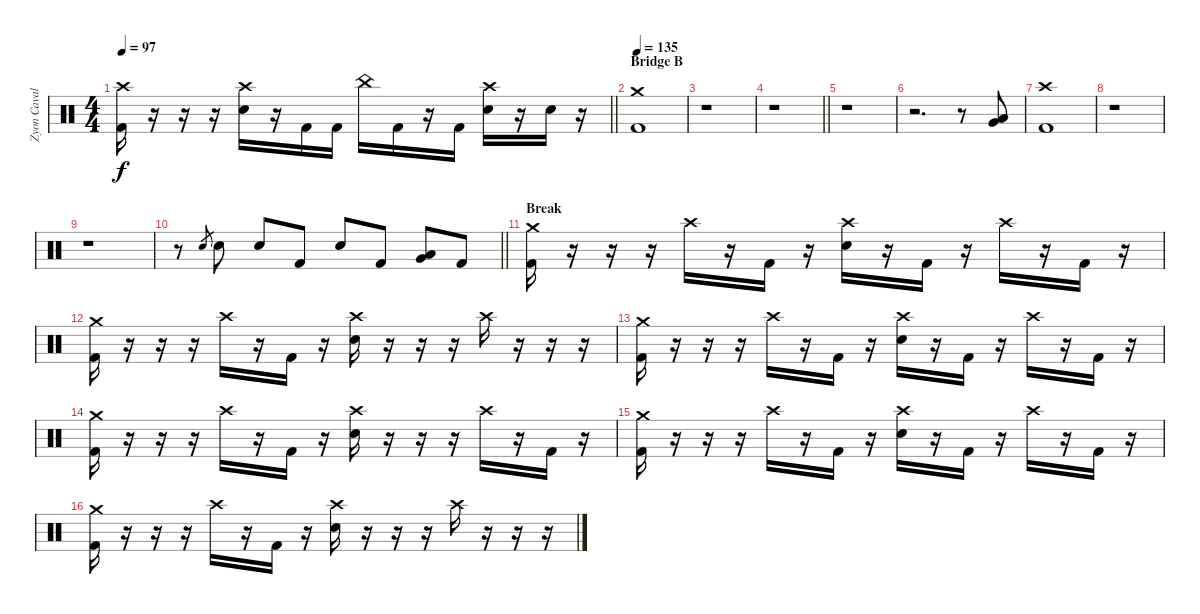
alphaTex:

\track ("Zyon Cavalera" "Zyon Caval") {instrument percussion}
\staff {score}
\articulation defaults
\ts (4 4)
\tempo 97
\clef neutral
\barLineRight lightlight
\ks c
("Crash high (hit)" "Kick (hit) 2").16{dy f} r.16 r.16 r.16 ("Crash high (hit)" "Snare (hit) 2").16 r.16 "Kick (hit) 2".16 "Kick (hit) 2".16 "China (hit)".16 "Kick (hit) 2".16 r.16 "Kick (hit) 2".16 ("Crash high (hit)" "Snare (hit) 2").16 r.16 "Snare (hit) 2".16 r.16 |
\section ("" "Bridge B")
\tempo 135
("Crash medium (hit)" "Kick (hit) 2").1 |
r.1 |
\barLineRight lightlight
r.1 |
r.1 |
r.2{d} r.8 ("Very Low Tom (hit)" "Low Floor Tom (hit)").8 |
("Crash high (hit)" "Kick (hit) 2").1 |
r.1 |
r.1 |
\barLineRight lightlight
r.8 "Snare (hit) 2".8{gr} "Snare (hit) 2".8 "Snare (hit) 2".8 "Kick (hit) 2".8 "Snare (hit) 2".8 "Kick (hit) 2".8 ("Low Tom (hit)" "Very Low Tom (hit)").8 "Kick (hit) 2".8 |
\section ("" "Break")
("Crash medium (hit)" "Kick (hit) 2").16 r.16 r.16 r.16 "Crash high (hit)".16 r.16 "Kick (hit) 2".16 r.16 ("Crash high (hit)" "Snare (hit) 2").16 r.16 "Kick (hit) 2".16 r.16 "Crash high (hit)".16 r.16 "Kick (hit) 2".16 r.16 |
("Crash medium (hit)" "Kick (hit) 2").16 r.16 r.16 r.16 "Crash high (hit)".16 r.16 "Kick (hit) 2".16 r.16 ("Crash high (hit)" "Snare (hit) 2").16 r.16 r.16 r.16 "Crash high (hit)".16 r.16 r.16 r.16 |
("Crash medium (hit)" "Kick (hit) 2").16 r.16 r.16 r.16 "Crash high (hit)".16 r.16 "Kick (hit) 2".16 r.16 ("Crash high (hit)" "Snare (hit) 2").16 r.16 "Kick (hit) 2".16 r.16 "Crash high (hit)".16 r.16 "Kick (hit) 2".16 r.16 |
("Crash medium (hit)" "Kick (hit) 2").16 r.16 r.16 r.16 "Crash high (hit)".16 r.16 "Kick (hit) 2".16 r.16 ("Crash high (hit)" "Snare (hit) 2").16 r.16 r.16 r.16 "Crash high (hit)".16 r.16 "Kick (hit) 2".16 r.16 |
("Crash medium (hit)" "Kick (hit) 2").16 r.16 r.16 r.16 "Crash high (hit)".16 r.16 "Kick (hit) 2".16 r.16 ("Crash high (hit)" "Snare (hit) 2").16 r.16 "Kick (hit) 2".16 r.16 "Crash high (hit)".16 r.16 "Kick (hit) 2".16 r.16 |
("Crash medium (hit)" "Kick (hit) 2").16 r.16 r.16 r.16 "Crash high (hit)".16 r.16 "Kick (hit) 2".16 r.16 ("Crash high (hit)" "Snare (hit) 2").16 r.16 r.16 r.16 "Crash high (hit)".16 r.16 r.16 r.16
